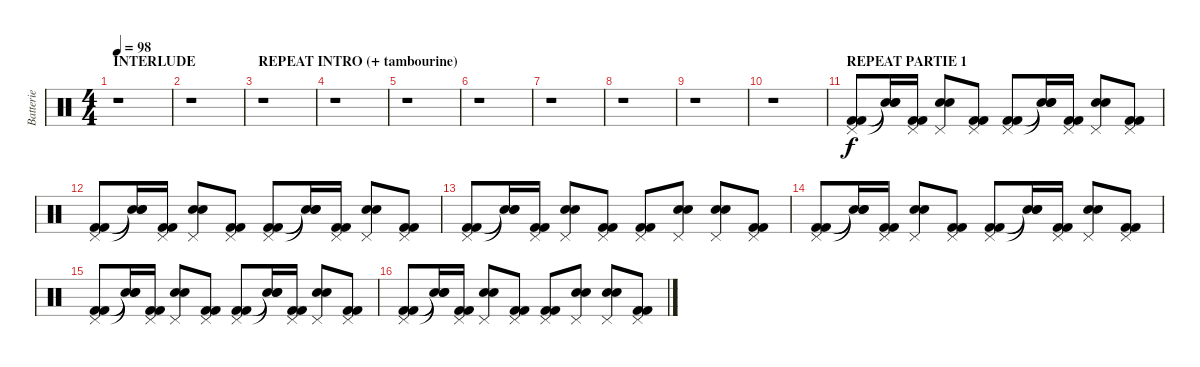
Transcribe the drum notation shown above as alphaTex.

\track ("Batterie" "Batterie") {instrument percussion}
\staff {score}
\articulation defaults
\ts (4 4)
\section ("" "INTERLUDE")
\tempo 98
\clef neutral
\ks c
r.1{dy f} |
r.1 |
\section ("" "REPEAT INTRO (+ tambourine)")
r.1 |
r.1 |
r.1 |
r.1 |
r.1 |
r.1 |
r.1 |
r.1 |
\section ("" "REPEAT PARTIE 1")
("Pedal Hi-Hat (hit)" "Kick (hit) 2" "Kick (hit) 2").8 ("Snare (hit)"{t} "Snare (hit)"{t} "Snare (hit)"{t}).16 ("Pedal Hi-Hat (hit)" "Kick (hit) 2" "Kick (hit) 2").16 ("Pedal Hi-Hat (hit)" "Electric Snare (hit)" "Electric Snare (hit)").8 ("Pedal Hi-Hat (hit)" "Kick (hit) 2" "Kick (hit) 2").8 ("Pedal Hi-Hat (hit)" "Kick (hit) 2" "Kick (hit) 2").8 ("Snare (hit)"{t} "Snare (hit)"{t} "Snare (hit)"{t}).16 ("Pedal Hi-Hat (hit)" "Kick (hit) 2" "Kick (hit) 2").16 ("Pedal Hi-Hat (hit)" "Electric Snare (hit)" "Electric Snare (hit)").8 ("Pedal Hi-Hat (hit)" "Kick (hit) 2" "Kick (hit) 2").8 |
("Pedal Hi-Hat (hit)" "Kick (hit) 2" "Kick (hit) 2").8 ("Snare (hit)"{t} "Snare (hit)"{t} "Snare (hit)"{t}).16 ("Pedal Hi-Hat (hit)" "Kick (hit) 2" "Kick (hit) 2").16 ("Pedal Hi-Hat (hit)" "Electric Snare (hit)" "Electric Snare (hit)").8 ("Pedal Hi-Hat (hit)" "Kick (hit) 2" "Kick (hit) 2").8 ("Pedal Hi-Hat (hit)" "Kick (hit) 2" "Kick (hit) 2").8 ("Snare (hit)"{t} "Snare (hit)"{t} "Snare (hit)"{t}).16 ("Pedal Hi-Hat (hit)" "Kick (hit) 2" "Kick (hit) 2").16 ("Pedal Hi-Hat (hit)" "Electric Snare (hit)" "Electric Snare (hit)").8 ("Pedal Hi-Hat (hit)" "Kick (hit) 2" "Kick (hit) 2").8 |
("Pedal Hi-Hat (hit)" "Kick (hit) 2" "Kick (hit) 2").8 ("Snare (hit)"{t} "Snare (hit)"{t} "Snare (hit)"{t}).16 ("Pedal Hi-Hat (hit)" "Kick (hit) 2" "Kick (hit) 2").16 ("Pedal Hi-Hat (hit)" "Electric Snare (hit)" "Electric Snare (hit)").8 ("Pedal Hi-Hat (hit)" "Kick (hit) 2" "Kick (hit) 2").8 ("Pedal Hi-Hat (hit)" "Kick (hit) 2" "Kick (hit) 2").8 ("Pedal Hi-Hat (hit)" "Electric Snare (hit)" "Electric Snare (hit)").8 ("Pedal Hi-Hat (hit)" "Electric Snare (hit)" "Electric Snare (hit)").8 ("Pedal Hi-Hat (hit)" "Kick (hit) 2" "Kick (hit) 2").8 |
("Pedal Hi-Hat (hit)" "Kick (hit) 2" "Kick (hit) 2").8 ("Snare (hit)"{t} "Snare (hit)"{t} "Snare (hit)"{t}).16 ("Pedal Hi-Hat (hit)" "Kick (hit) 2" "Kick (hit) 2").16 ("Pedal Hi-Hat (hit)" "Electric Snare (hit)" "Electric Snare (hit)").8 ("Pedal Hi-Hat (hit)" "Kick (hit) 2" "Kick (hit) 2").8 ("Pedal Hi-Hat (hit)" "Kick (hit) 2" "Kick (hit) 2").8 ("Snare (hit)"{t} "Snare (hit)"{t} "Snare (hit)"{t}).16 ("Pedal Hi-Hat (hit)" "Kick (hit) 2" "Kick (hit) 2").16 ("Pedal Hi-Hat (hit)" "Electric Snare (hit)" "Electric Snare (hit)").8 ("Pedal Hi-Hat (hit)" "Kick (hit) 2" "Kick (hit) 2").8 |
("Pedal Hi-Hat (hit)" "Kick (hit) 2" "Kick (hit) 2").8 ("Snare (hit)"{t} "Snare (hit)"{t} "Snare (hit)"{t}).16 ("Pedal Hi-Hat (hit)" "Kick (hit) 2" "Kick (hit) 2").16 ("Pedal Hi-Hat (hit)" "Electric Snare (hit)" "Electric Snare (hit)").8 ("Pedal Hi-Hat (hit)" "Kick (hit) 2" "Kick (hit) 2").8 ("Pedal Hi-Hat (hit)" "Kick (hit) 2" "Kick (hit) 2").8 ("Snare (hit)"{t} "Snare (hit)"{t} "Snare (hit)"{t}).16 ("Pedal Hi-Hat (hit)" "Kick (hit) 2" "Kick (hit) 2").16 ("Pedal Hi-Hat (hit)" "Electric Snare (hit)" "Electric Snare (hit)").8 ("Pedal Hi-Hat (hit)" "Kick (hit) 2" "Kick (hit) 2").8 |
("Pedal Hi-Hat (hit)" "Kick (hit) 2" "Kick (hit) 2").8 ("Snare (hit)"{t} "Snare (hit)"{t} "Snare (hit)"{t}).16 ("Pedal Hi-Hat (hit)" "Kick (hit) 2" "Kick (hit) 2").16 ("Pedal Hi-Hat (hit)" "Electric Snare (hit)" "Electric Snare (hit)").8 ("Pedal Hi-Hat (hit)" "Kick (hit) 2" "Kick (hit) 2").8 ("Pedal Hi-Hat (hit)" "Kick (hit) 2" "Kick (hit) 2").8 ("Pedal Hi-Hat (hit)" "Electric Snare (hit)" "Electric Snare (hit)").8 ("Pedal Hi-Hat (hit)" "Electric Snare (hit)" "Electric Snare (hit)").8 ("Pedal Hi-Hat (hit)" "Kick (hit) 2" "Kick (hit) 2").8
